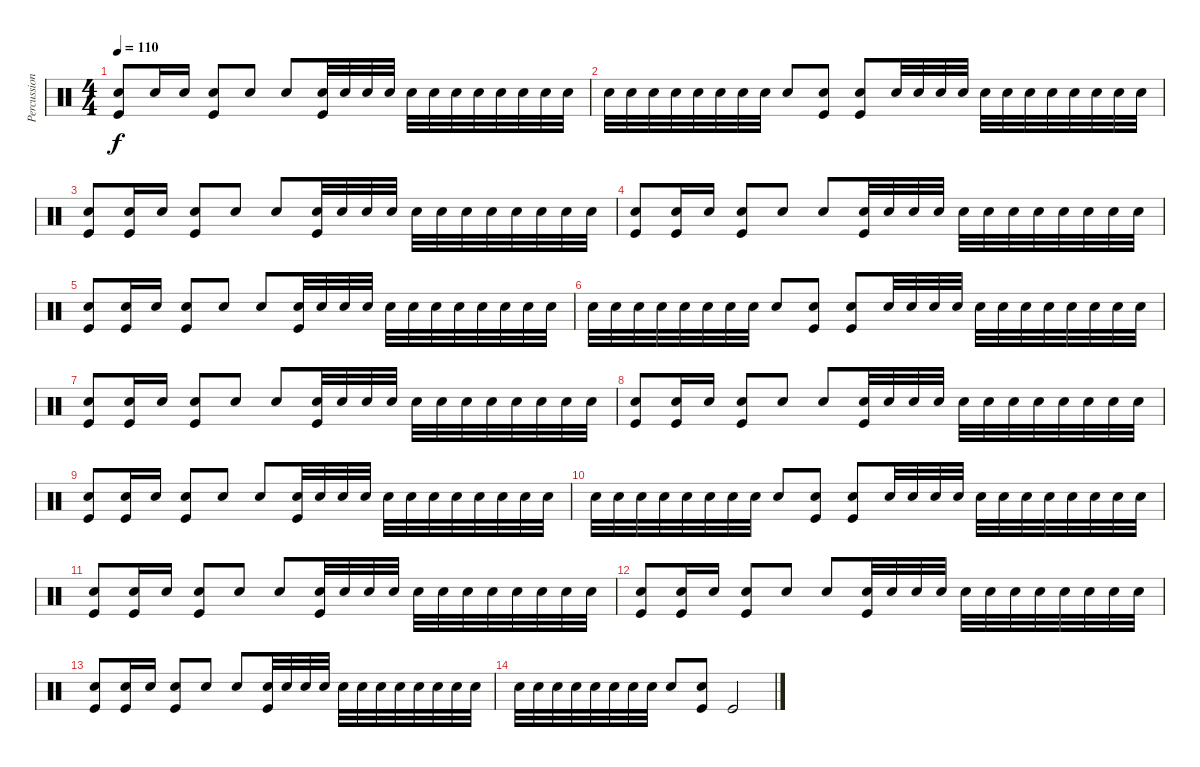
\track ("Percussions" "Percussion") {instrument percussion}
\staff {score}
\articulation defaults
\ts (4 4)
\tempo 110
\clef neutral
\ks c
("Snare (hit) 2" "Kick (hit)").8{dy f} "Snare (hit) 2".16 "Snare (hit) 2".16 ("Snare (hit) 2" "Kick (hit)").8 "Snare (hit) 2".8 "Snare (hit) 2".8 ("Snare (hit) 2" "Kick (hit)").32 "Snare (hit) 2".32 "Snare (hit) 2".32 "Snare (hit) 2".32 "Snare (hit) 2".32 "Snare (hit) 2".32 "Snare (hit) 2".32 "Snare (hit) 2".32 "Snare (hit) 2".32 "Snare (hit) 2".32 "Snare (hit) 2".32 "Snare (hit) 2".32 |
"Snare (hit) 2".32 "Snare (hit) 2".32 "Snare (hit) 2".32 "Snare (hit) 2".32 "Snare (hit) 2".32 "Snare (hit) 2".32 "Snare (hit) 2".32 "Snare (hit) 2".32 "Snare (hit) 2".8 ("Snare (hit) 2" "Kick (hit)").8 ("Snare (hit) 2" "Kick (hit)").8 "Snare (hit) 2".32 "Snare (hit) 2".32 "Snare (hit) 2".32 "Snare (hit) 2".32 "Snare (hit) 2".32 "Snare (hit) 2".32 "Snare (hit) 2".32 "Snare (hit) 2".32 "Snare (hit) 2".32 "Snare (hit) 2".32 "Snare (hit) 2".32 "Snare (hit) 2".32 |
("Snare (hit) 2" "Kick (hit)").8 ("Snare (hit) 2" "Kick (hit)").16 "Snare (hit) 2".16 ("Snare (hit) 2" "Kick (hit)").8 "Snare (hit) 2".8 "Snare (hit) 2".8 ("Snare (hit) 2" "Kick (hit)").32 "Snare (hit) 2".32 "Snare (hit) 2".32 "Snare (hit) 2".32 "Snare (hit) 2".32 "Snare (hit) 2".32 "Snare (hit) 2".32 "Snare (hit) 2".32 "Snare (hit) 2".32 "Snare (hit) 2".32 "Snare (hit) 2".32 "Snare (hit) 2".32 |
("Snare (hit) 2" "Kick (hit)").8 ("Snare (hit) 2" "Kick (hit)").16 "Snare (hit) 2".16 ("Snare (hit) 2" "Kick (hit)").8 "Snare (hit) 2".8 "Snare (hit) 2".8 ("Snare (hit) 2" "Kick (hit)").32 "Snare (hit) 2".32 "Snare (hit) 2".32 "Snare (hit) 2".32 "Snare (hit) 2".32 "Snare (hit) 2".32 "Snare (hit) 2".32 "Snare (hit) 2".32 "Snare (hit) 2".32 "Snare (hit) 2".32 "Snare (hit) 2".32 "Snare (hit) 2".32 |
("Snare (hit) 2" "Kick (hit)").8 ("Snare (hit) 2" "Kick (hit)").16 "Snare (hit) 2".16 ("Snare (hit) 2" "Kick (hit)").8 "Snare (hit) 2".8 "Snare (hit) 2".8 ("Snare (hit) 2" "Kick (hit)").32 "Snare (hit) 2".32 "Snare (hit) 2".32 "Snare (hit) 2".32 "Snare (hit) 2".32 "Snare (hit) 2".32 "Snare (hit) 2".32 "Snare (hit) 2".32 "Snare (hit) 2".32 "Snare (hit) 2".32 "Snare (hit) 2".32 "Snare (hit) 2".32 |
"Snare (hit) 2".32 "Snare (hit) 2".32 "Snare (hit) 2".32 "Snare (hit) 2".32 "Snare (hit) 2".32 "Snare (hit) 2".32 "Snare (hit) 2".32 "Snare (hit) 2".32 "Snare (hit) 2".8 ("Snare (hit) 2" "Kick (hit)").8 ("Snare (hit) 2" "Kick (hit)").8 "Snare (hit) 2".32 "Snare (hit) 2".32 "Snare (hit) 2".32 "Snare (hit) 2".32 "Snare (hit) 2".32 "Snare (hit) 2".32 "Snare (hit) 2".32 "Snare (hit) 2".32 "Snare (hit) 2".32 "Snare (hit) 2".32 "Snare (hit) 2".32 "Snare (hit) 2".32 |
("Snare (hit) 2" "Kick (hit)").8 ("Snare (hit) 2" "Kick (hit)").16 "Snare (hit) 2".16 ("Snare (hit) 2" "Kick (hit)").8 "Snare (hit) 2".8 "Snare (hit) 2".8 ("Snare (hit) 2" "Kick (hit)").32 "Snare (hit) 2".32 "Snare (hit) 2".32 "Snare (hit) 2".32 "Snare (hit) 2".32 "Snare (hit) 2".32 "Snare (hit) 2".32 "Snare (hit) 2".32 "Snare (hit) 2".32 "Snare (hit) 2".32 "Snare (hit) 2".32 "Snare (hit) 2".32 |
("Snare (hit) 2" "Kick (hit)").8 ("Snare (hit) 2" "Kick (hit)").16 "Snare (hit) 2".16 ("Snare (hit) 2" "Kick (hit)").8 "Snare (hit) 2".8 "Snare (hit) 2".8 ("Snare (hit) 2" "Kick (hit)").32 "Snare (hit) 2".32 "Snare (hit) 2".32 "Snare (hit) 2".32 "Snare (hit) 2".32 "Snare (hit) 2".32 "Snare (hit) 2".32 "Snare (hit) 2".32 "Snare (hit) 2".32 "Snare (hit) 2".32 "Snare (hit) 2".32 "Snare (hit) 2".32 |
("Snare (hit) 2" "Kick (hit)").8 ("Snare (hit) 2" "Kick (hit)").16 "Snare (hit) 2".16 ("Snare (hit) 2" "Kick (hit)").8 "Snare (hit) 2".8 "Snare (hit) 2".8 ("Snare (hit) 2" "Kick (hit)").32 "Snare (hit) 2".32 "Snare (hit) 2".32 "Snare (hit) 2".32 "Snare (hit) 2".32 "Snare (hit) 2".32 "Snare (hit) 2".32 "Snare (hit) 2".32 "Snare (hit) 2".32 "Snare (hit) 2".32 "Snare (hit) 2".32 "Snare (hit) 2".32 |
"Snare (hit) 2".32 "Snare (hit) 2".32 "Snare (hit) 2".32 "Snare (hit) 2".32 "Snare (hit) 2".32 "Snare (hit) 2".32 "Snare (hit) 2".32 "Snare (hit) 2".32 "Snare (hit) 2".8 ("Snare (hit) 2" "Kick (hit)").8 ("Snare (hit) 2" "Kick (hit)").8 "Snare (hit) 2".32 "Snare (hit) 2".32 "Snare (hit) 2".32 "Snare (hit) 2".32 "Snare (hit) 2".32 "Snare (hit) 2".32 "Snare (hit) 2".32 "Snare (hit) 2".32 "Snare (hit) 2".32 "Snare (hit) 2".32 "Snare (hit) 2".32 "Snare (hit) 2".32 |
("Snare (hit) 2" "Kick (hit)").8 ("Snare (hit) 2" "Kick (hit)").16 "Snare (hit) 2".16 ("Snare (hit) 2" "Kick (hit)").8 "Snare (hit) 2".8 "Snare (hit) 2".8 ("Snare (hit) 2" "Kick (hit)").32 "Snare (hit) 2".32 "Snare (hit) 2".32 "Snare (hit) 2".32 "Snare (hit) 2".32 "Snare (hit) 2".32 "Snare (hit) 2".32 "Snare (hit) 2".32 "Snare (hit) 2".32 "Snare (hit) 2".32 "Snare (hit) 2".32 "Snare (hit) 2".32 |
("Snare (hit) 2" "Kick (hit)").8 ("Snare (hit) 2" "Kick (hit)").16 "Snare (hit) 2".16 ("Snare (hit) 2" "Kick (hit)").8 "Snare (hit) 2".8 "Snare (hit) 2".8 ("Snare (hit) 2" "Kick (hit)").32 "Snare (hit) 2".32 "Snare (hit) 2".32 "Snare (hit) 2".32 "Snare (hit) 2".32 "Snare (hit) 2".32 "Snare (hit) 2".32 "Snare (hit) 2".32 "Snare (hit) 2".32 "Snare (hit) 2".32 "Snare (hit) 2".32 "Snare (hit) 2".32 |
("Snare (hit) 2" "Kick (hit)").8 ("Snare (hit) 2" "Kick (hit)").16 "Snare (hit) 2".16 ("Snare (hit) 2" "Kick (hit)").8 "Snare (hit) 2".8 "Snare (hit) 2".8 ("Snare (hit) 2" "Kick (hit)").32 "Snare (hit) 2".32 "Snare (hit) 2".32 "Snare (hit) 2".32 "Snare (hit) 2".32 "Snare (hit) 2".32 "Snare (hit) 2".32 "Snare (hit) 2".32 "Snare (hit) 2".32 "Snare (hit) 2".32 "Snare (hit) 2".32 "Snare (hit) 2".32 |
"Snare (hit) 2".32 "Snare (hit) 2".32 "Snare (hit) 2".32 "Snare (hit) 2".32 "Snare (hit) 2".32 "Snare (hit) 2".32 "Snare (hit) 2".32 "Snare (hit) 2".32 "Snare (hit) 2".8 ("Snare (hit) 2" "Kick (hit)").8 "Kick (hit)".2
